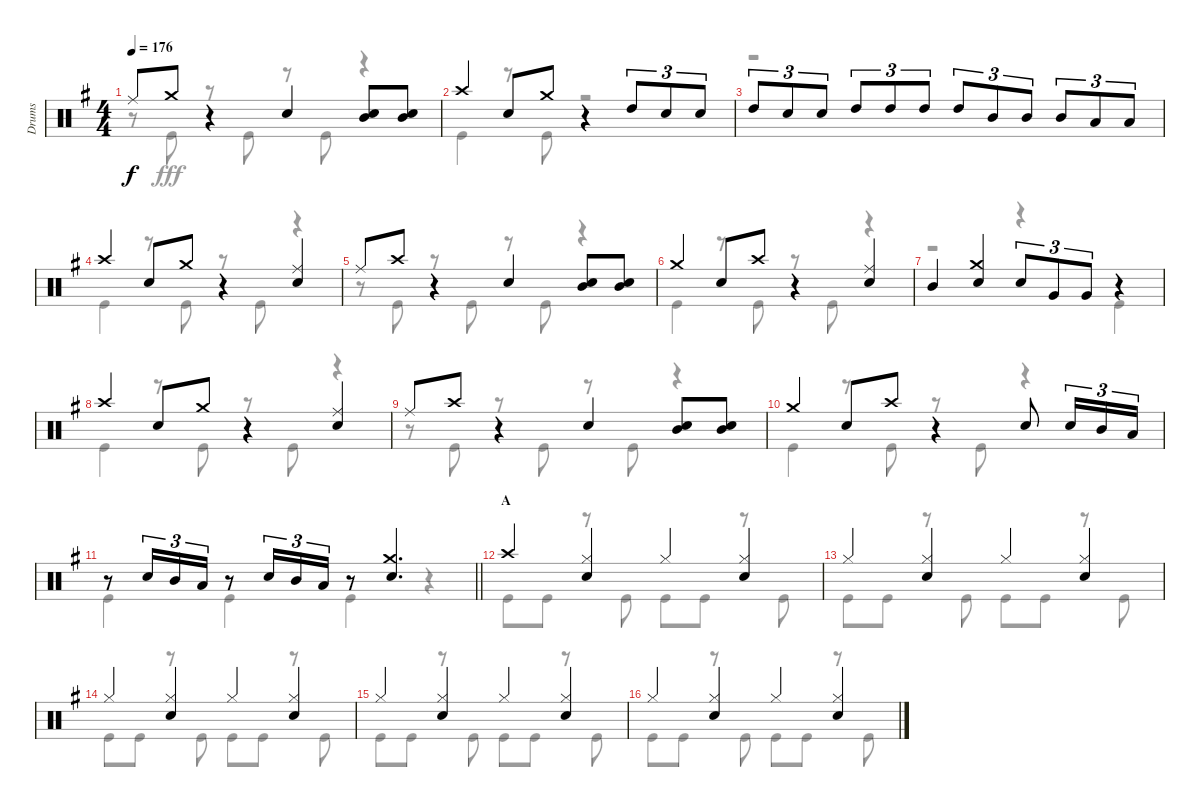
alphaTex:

\track ("Drums" "Drums") {instrument percussion}
\staff {score}
\articulation defaults
\voice
\ts (4 4)
\tempo 176
\clef neutral
\ks g "Ride (middle)".8{dy f} "Crash medium (hit)".8
r.4 "Snare (hit) 2".4 ("Mid Tom (hit)" "Snare (hit) 2").8 ("Mid Tom (hit)" "Snare (hit) 2").8 |
"Crash high (hit)".4 "Snare (hit) 2".8 "Crash medium (hit)".8 r.4 "High Tom (hit)".8{tu (3 2)} "Snare (hit) 2".8{tu (3 2)} "Snare (hit) 2".8{tu (3 2)} |
"High Tom (hit)".8{tu (3 2)} "Snare (hit) 2".8{tu (3 2)} "Snare (hit) 2".8{tu (3 2)} "High Tom (hit)".8{tu (3 2)} "High Tom (hit)".8{tu (3 2)} "High Tom (hit)".8{tu (3 2)} "High Tom (hit)".8{tu (3 2)} "Mid Tom (hit)".8{tu (3 2)} "Mid Tom (hit)".8{tu (3 2)} "Mid Tom (hit)".8{tu (3 2)} "Low Tom (hit)".8{tu (3 2)} "Low Tom (hit)".8{tu (3 2)} |
"Crash high (hit)".4 "Snare (hit) 2".8 "Crash medium (hit)".8 r.4 ("Ride (middle)" "Snare (hit) 2").4 |
"Ride (middle)".8 "Crash high (hit)".8 r.4 "Snare (hit) 2".4 ("Mid Tom (hit)" "Snare (hit) 2").8 ("Mid Tom (hit)" "Snare (hit) 2").8 |
"Crash medium (hit)".4 "Snare (hit) 2".8 "Crash high (hit)".8 r.4 ("Ride (middle)" "Snare (hit) 2").4 |
"Mid Tom (hit)".4 ("Crash medium (hit)" "Snare (hit) 2").4 "Snare (hit) 2".8{tu (3 2)} "Very Low Tom (hit)".8{tu (3 2)} "Very Low Tom (hit)".8{tu (3 2)} r.4 |
"Crash high (hit)".4 "Snare (hit) 2".8 "Crash medium (hit)".8 r.4 ("Ride (middle)" "Snare (hit) 2").4 |
"Ride (middle)".8 "Crash high (hit)".8 r.4 "Snare (hit) 2".4 ("Mid Tom (hit)" "Snare (hit) 2").8 ("Mid Tom (hit)" "Snare (hit) 2").8 |
"Crash medium (hit)".4 "Snare (hit) 2".8 "Crash high (hit)".8 r.4 "Snare (hit) 2".8 "Snare (hit) 2".16{tu (3 2)} "Mid Tom (hit)".16{tu (3 2)} "Low Tom (hit)".16{tu (3 2)} |
\barLineRight lightlight
r.8 "Snare (hit) 2".16{tu (3 2)} "Mid Tom (hit)".16{tu (3 2)} "Low Tom (hit)".16{tu (3 2)} r.8 "Snare (hit) 2".16{tu (3 2)} "Mid Tom (hit)".16{tu (3 2)} "Low Tom (hit)".16{tu (3 2)} r.8 ("Crash medium (hit)" "Snare (hit) 2").4{d} |
\section ("" "A")
"Crash high (hit)".4 ("Hi-Hat (closed)" "Snare (hit) 2").4 "Hi-Hat (closed)".4 ("Hi-Hat (closed)" "Snare (hit) 2").4 |
"Hi-Hat (closed)".4 ("Hi-Hat (closed)" "Snare (hit) 2").4 "Hi-Hat (closed)".4 ("Hi-Hat (closed)" "Snare (hit) 2").4 |
"Hi-Hat (closed)".4 ("Hi-Hat (closed)" "Snare (hit) 2").4 "Hi-Hat (closed)".4 ("Hi-Hat (closed)" "Snare (hit) 2").4 |
"Hi-Hat (closed)".4 ("Hi-Hat (closed)" "Snare (hit) 2").4 "Hi-Hat (closed)".4 ("Hi-Hat (closed)" "Snare (hit) 2").4 |
"Hi-Hat (closed)".4 ("Hi-Hat (closed)" "Snare (hit) 2").4 "Hi-Hat (closed)".4 ("Hi-Hat (closed)" "Snare (hit) 2").4
\voice
\clef neutral
\ottava regular
\simile none
\ks g
r.8{dy fff} "Kick (hit)".8 r.8 "Kick (hit)".8 r.8 "Kick (hit)".8 r.4 |
"Kick (hit)".4 r.8 "Kick (hit)".8 r.2 |
r.1 |
"Kick (hit)".4 r.8 "Kick (hit)".8 r.8 "Kick (hit)".8 r.4 |
r.8 "Kick (hit)".8 r.8 "Kick (hit)".8 r.8 "Kick (hit)".8 r.4 |
"Kick (hit)".4 r.8 "Kick (hit)".8 r.8 "Kick (hit)".8 r.4 |
r.2 r.4 "Kick (hit)".4 |
"Kick (hit)".4 r.8 "Kick (hit)".8 r.8 "Kick (hit)".8 r.4 |
r.8 "Kick (hit)".8 r.8 "Kick (hit)".8 r.8 "Kick (hit)".8 r.4 |
"Kick (hit)".4 r.8 "Kick (hit)".8 r.8 "Kick (hit)".8 r.4 |
\barLineRight lightlight "Kick (hit)".4 "Kick (hit)".4 "Kick (hit)".4
r.4 |
"Kick (hit)".8 "Kick (hit)".8 r.8 "Kick (hit)".8 "Kick (hit)".8 "Kick (hit)".8 r.8 "Kick (hit)".8 |
"Kick (hit)".8 "Kick (hit)".8 r.8 "Kick (hit)".8 "Kick (hit)".8 "Kick (hit)".8 r.8 "Kick (hit)".8 |
"Kick (hit)".8 "Kick (hit)".8 r.8 "Kick (hit)".8 "Kick (hit)".8 "Kick (hit)".8 r.8 "Kick (hit)".8 |
"Kick (hit)".8 "Kick (hit)".8 r.8 "Kick (hit)".8 "Kick (hit)".8 "Kick (hit)".8 r.8 "Kick (hit)".8 |
"Kick (hit)".8 "Kick (hit)".8 r.8 "Kick (hit)".8 "Kick (hit)".8 "Kick (hit)".8 r.8 "Kick (hit)".8
